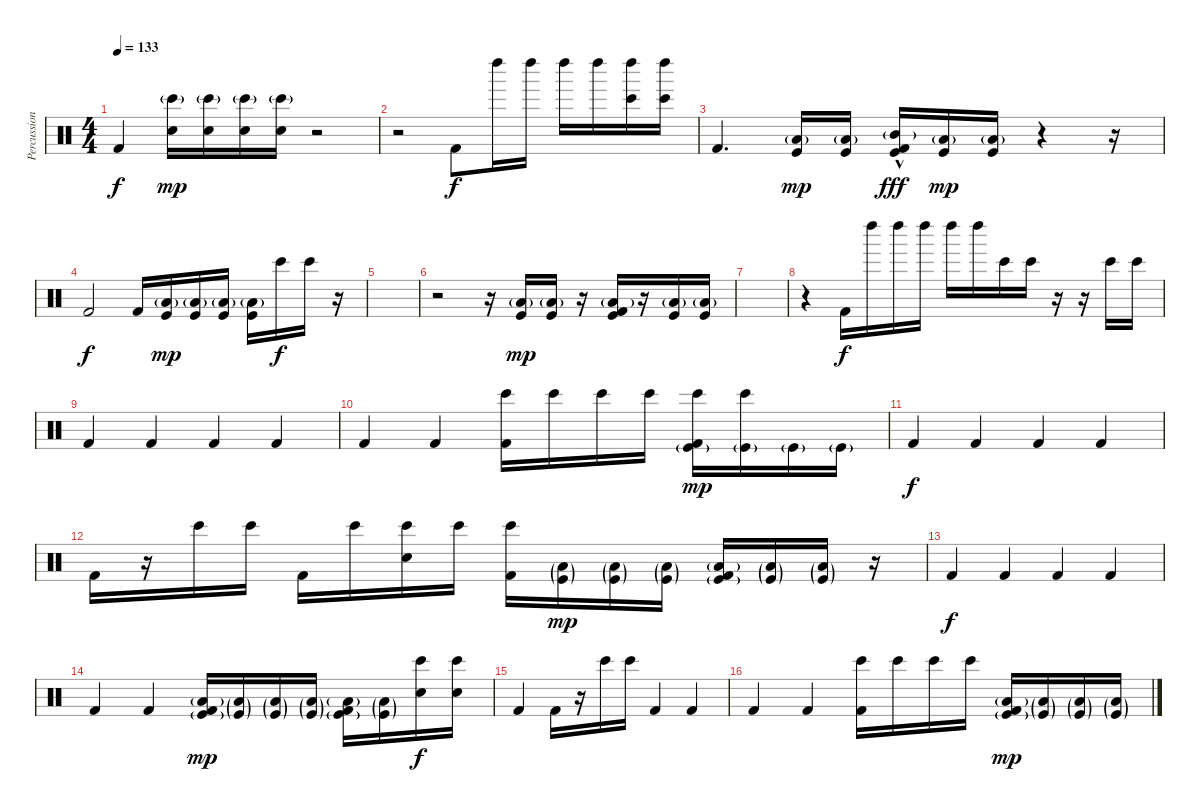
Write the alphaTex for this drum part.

\track ("Percussion" "Percussion") {instrument percussion}
\staff {score}
\articulation defaults
\ts (4 4)
\tempo 133
\clef neutral
\ks c "Kick (hit) 2".4{dy f}
("Bongo High (hit)"{g} "Hand Clap (hit)").16{dy mp} ("Bongo High (hit)"{g} "Hand Clap (hit)").16 ("Bongo High (hit)"{g} "Hand Clap (hit)").16 ("Bongo High (hit)"{g} "Hand Clap (hit)").16 r.2 |
r.2 "Kick (hit) 2".8{dy f} "Left Maraca (hit)".16 "Left Maraca (hit)".16 "Left Maraca (hit)".16 "Left Maraca (hit)".16 ("Bongo High (hit)" "Left Maraca (hit)").16 ("Bongo High (hit)" "Left Maraca (hit)").16 |
"Kick (hit) 2".4{d} ("Kick (hit)" "Low Tom (hit)"{g}).16{dy mp} ("Kick (hit)" "Low Tom (hit)"{g}).16 ("Kick (hit)" "Mid Tom (hit)"{g} "Kick (hit) 2"{hac}).16{dy fff} ("Kick (hit)" "Low Tom (hit)"{g}).16{dy mp} ("Kick (hit)" "Low Tom (hit)"{g}).16 r.4 r.16 |
"Kick (hit) 2".2{dy f} "Kick (hit) 2".16 ("Low Floor Tom (hit)"{g} "Kick (hit)").16{dy mp} ("Low Floor Tom (hit)"{g} "Kick (hit)").16 ("Low Floor Tom (hit)"{g} "Kick (hit)").16 ("Low Floor Tom (hit)"{g} "Kick (hit)").16 "Bongo High (hit)".16{dy f} "Bongo High (hit)".16 r.16 |
|
r.2 r.16 ("Low Floor Tom (hit)"{g} "Kick (hit)").16{dy mp} ("Low Floor Tom (hit)"{g} "Kick (hit)").16 r.16 ("Low Floor Tom (hit)"{g} "Kick (hit)" "Kick (hit) 2").16 r.16 ("Low Floor Tom (hit)"{g} "Kick (hit)").16 ("Low Floor Tom (hit)"{g} "Kick (hit)").16 |
|
r.4 "Kick (hit) 2".16{dy f} "Left Maraca (hit)".16 "Left Maraca (hit)".16 "Left Maraca (hit)".16 "Left Maraca (hit)".16 "Left Maraca (hit)".16 "Bongo High (hit)".16 "Bongo High (hit)".16 r.16 r.16 "Bongo High (hit)".16 "Bongo High (hit)".16 |
"Kick (hit) 2".4 "Kick (hit) 2".4 "Kick (hit) 2".4 "Kick (hit) 2".4 |
"Kick (hit) 2".4 "Kick (hit) 2".4 ("Bongo High (hit)" "Kick (hit) 2").16 "Bongo High (hit)".16 "Bongo High (hit)".16 "Bongo High (hit)".16 ("Bongo High (hit)" "Kick (hit)"{g} "Kick (hit) 2").16{dy mp} ("Bongo High (hit)" "Kick (hit)"{g}).16 "Kick (hit)"{g}.16 "Kick (hit)"{g}.16 |
"Kick (hit) 2".4{dy f} "Kick (hit) 2".4 "Kick (hit) 2".4 "Kick (hit) 2".4 |
"Kick (hit) 2".16 r.16 "Bongo High (hit)".16 "Bongo High (hit)".16 "Kick (hit) 2".16 "Bongo High (hit)".16 ("Hand Clap (hit)" "Bongo High (hit)").16 "Bongo High (hit)".16 ("Bongo High (hit)" "Kick (hit) 2").16 ("Low Floor Tom (hit)"{g} "Kick (hit)"{g}).16{dy mp} ("Low Floor Tom (hit)"{g} "Kick (hit)"{g}).16 ("Low Floor Tom (hit)"{g} "Kick (hit)"{g}).16 ("Low Floor Tom (hit)"{g} "Kick (hit)"{g} "Kick (hit) 2").16 ("Low Floor Tom (hit)"{g} "Kick (hit)"{g}).16 ("Low Floor Tom (hit)"{g} "Kick (hit)"{g}).16 r.16 |
"Kick (hit) 2".4{dy f} "Kick (hit) 2".4 "Kick (hit) 2".4 "Kick (hit) 2".4 |
"Kick (hit) 2".4 "Kick (hit) 2".4 ("Low Floor Tom (hit)"{g} "Kick (hit)"{g} "Kick (hit) 2").16{dy mp} ("Low Floor Tom (hit)"{g} "Kick (hit)"{g}).16 ("Low Floor Tom (hit)"{g} "Kick (hit)"{g}).16 ("Low Floor Tom (hit)"{g} "Kick (hit)"{g}).16 ("Low Floor Tom (hit)"{g} "Kick (hit)"{g} "Kick (hit) 2").16 ("Low Floor Tom (hit)"{g} "Kick (hit)"{g}).16 ("Hand Clap (hit)" "Bongo High (hit)").16{dy f} ("Hand Clap (hit)" "Bongo High (hit)").16 |
"Kick (hit) 2".4 "Kick (hit) 2".16 r.16 "Bongo High (hit)".16 "Bongo High (hit)".16 "Kick (hit) 2".4 "Kick (hit) 2".4 |
"Kick (hit) 2".4 "Kick (hit) 2".4 ("Bongo High (hit)" "Kick (hit) 2").16 "Bongo High (hit)".16 "Bongo High (hit)".16 "Bongo High (hit)".16 ("Low Floor Tom (hit)"{g} "Kick (hit)"{g} "Kick (hit) 2").16{dy mp} ("Low Floor Tom (hit)"{g} "Kick (hit)"{g}).16 ("Low Floor Tom (hit)"{g} "Kick (hit)"{g}).16 ("Low Floor Tom (hit)"{g} "Kick (hit)"{g}).16
